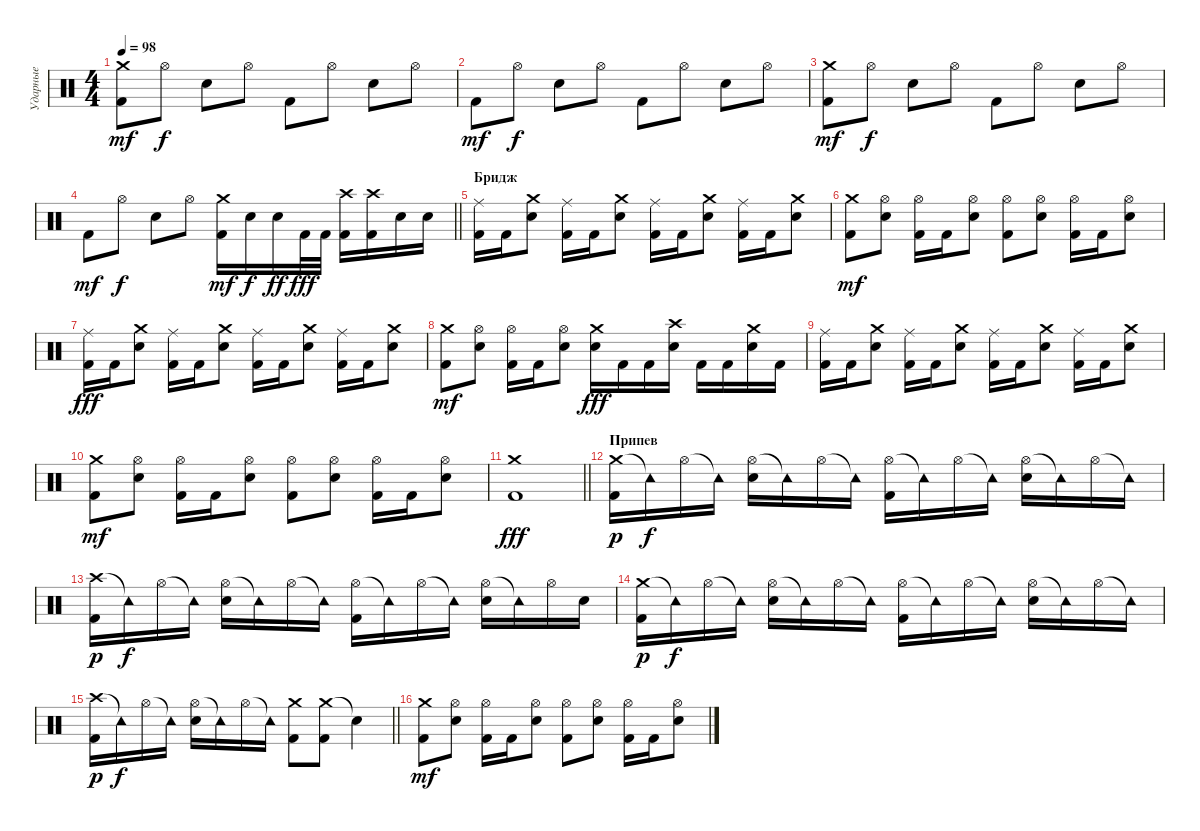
\track ("Ударные" "Ударные") {instrument percussion}
\staff {score}
\articulation defaults
\ts (4 4)
\tempo 98
\clef neutral
\ks c
("Crash medium (hit)" "Kick (hit) 2").8{dy mf} "Hi-Hat (open)".8{dy f} "Snare (hit) 2".8 "Hi-Hat (open)".8 "Kick (hit) 2".8 "Hi-Hat (open)".8 "Snare (hit) 2".8 "Hi-Hat (open)".8 |
"Kick (hit) 2".8{dy mf} "Hi-Hat (open)".8{dy f} "Snare (hit) 2".8 "Hi-Hat (open)".8 "Kick (hit) 2".8 "Hi-Hat (open)".8 "Snare (hit) 2".8 "Hi-Hat (open)".8 |
("Crash medium (hit)" "Kick (hit) 2").8{dy mf} "Hi-Hat (open)".8{dy f} "Snare (hit) 2".8 "Hi-Hat (open)".8 "Kick (hit) 2".8 "Hi-Hat (open)".8 "Snare (hit) 2".8 "Hi-Hat (open)".8 |
\barLineRight lightlight "Kick (hit) 2".8{dy mf} "Hi-Hat (open)".8{dy f} "Snare (hit) 2".8 "Hi-Hat (open)".8
("Crash medium (hit)" "Kick (hit) 2").16{dy mf} "Snare (hit) 2".16{dy f} "Snare (hit) 2".16{dy ff} "Kick (hit) 2".32{dy fff} "Kick (hit) 2".32 ("Crash high (hit)" "Kick (hit) 2").16 ("Crash high (hit)" "Kick (hit) 2").16 "Snare (hit) 2".16 "Snare (hit) 2".16 |
\section ("" "Бридж")
("Ride (middle)" "Kick (hit) 2").16 "Kick (hit) 2".16 ("Crash medium (hit)" "Snare (hit) 2").8 ("Ride (middle)" "Kick (hit) 2").16 "Kick (hit) 2".16 ("Crash medium (hit)" "Snare (hit) 2").8 ("Ride (middle)" "Kick (hit) 2").16 "Kick (hit) 2".16 ("Crash medium (hit)" "Snare (hit) 2").8 ("Ride (middle)" "Kick (hit) 2").16 "Kick (hit) 2".16 ("Crash medium (hit)" "Snare (hit) 2").8 |
("Crash medium (hit)" "Kick (hit) 2").8{dy mf} ("Hi-Hat (open)" "Snare (hit) 2").8 ("Hi-Hat (open)" "Kick (hit) 2").16 "Kick (hit) 2".16 ("Hi-Hat (open)" "Snare (hit) 2").8 ("Hi-Hat (open)" "Kick (hit) 2").8 ("Hi-Hat (open)" "Snare (hit) 2").8 ("Hi-Hat (open)" "Kick (hit) 2").16 "Kick (hit) 2".16 ("Hi-Hat (open)" "Snare (hit) 2").8 |
("Ride (middle)" "Kick (hit) 2").16{dy fff} "Kick (hit) 2".16 ("Crash medium (hit)" "Snare (hit) 2").8 ("Ride (middle)" "Kick (hit) 2").16 "Kick (hit) 2".16 ("Crash medium (hit)" "Snare (hit) 2").8 ("Ride (middle)" "Kick (hit) 2").16 "Kick (hit) 2".16 ("Crash medium (hit)" "Snare (hit) 2").8 ("Ride (middle)" "Kick (hit) 2").16 "Kick (hit) 2".16 ("Crash medium (hit)" "Snare (hit) 2").8 |
("Crash medium (hit)" "Kick (hit) 2").8{dy mf} ("Hi-Hat (open)" "Snare (hit) 2").8 ("Hi-Hat (open)" "Kick (hit) 2").16 "Kick (hit) 2".16 ("Hi-Hat (open)" "Snare (hit) 2").8 ("Crash medium (hit)" "Snare (hit) 2").16{dy fff} "Kick (hit) 2".16 "Kick (hit) 2".16 ("Crash high (hit)" "Snare (hit) 2").16 "Kick (hit) 2".16 "Kick (hit) 2".16 ("Crash medium (hit)" "Snare (hit) 2").16 "Kick (hit) 2".16 |
("Ride (middle)" "Kick (hit) 2").16 "Kick (hit) 2".16 ("Crash medium (hit)" "Snare (hit) 2").8 ("Ride (middle)" "Kick (hit) 2").16 "Kick (hit) 2".16 ("Crash medium (hit)" "Snare (hit) 2").8 ("Ride (middle)" "Kick (hit) 2").16 "Kick (hit) 2".16 ("Crash medium (hit)" "Snare (hit) 2").8 ("Ride (middle)" "Kick (hit) 2").16 "Kick (hit) 2".16 ("Crash medium (hit)" "Snare (hit) 2").8 |
("Crash medium (hit)" "Kick (hit) 2").8{dy mf} ("Hi-Hat (open)" "Snare (hit) 2").8 ("Hi-Hat (open)" "Kick (hit) 2").16 "Kick (hit) 2".16 ("Hi-Hat (open)" "Snare (hit) 2").8 ("Hi-Hat (open)" "Kick (hit) 2").8 ("Hi-Hat (open)" "Snare (hit) 2").8 ("Hi-Hat (open)" "Kick (hit) 2").16 "Kick (hit) 2".16 ("Hi-Hat (open)" "Snare (hit) 2").8 |
\barLineRight lightlight
("Crash medium (hit)" "Kick (hit) 2").1{dy fff} |
\section ("" "Припев")
("Crash medium (hit)" "Kick (hit) 2").16{dy p} "Tambourine (hit)"{t}.16{dy f} "Hi-Hat (open)".16 "Tambourine (hit)"{t}.16 ("Hi-Hat (open)" "Snare (hit) 2").16 "Tambourine (hit)"{t}.16 "Hi-Hat (open)".16 "Tambourine (hit)"{t}.16 ("Hi-Hat (open)" "Kick (hit) 2").16 "Tambourine (hit)"{t}.16 "Hi-Hat (open)".16 "Tambourine (hit)"{t}.16 ("Hi-Hat (open)" "Snare (hit) 2").16 "Tambourine (hit)"{t}.16 "Hi-Hat (open)".16 "Tambourine (hit)"{t}.16 |
("Crash high (hit)" "Kick (hit) 2").16{dy p} "Tambourine (hit)"{t}.16{dy f} "Hi-Hat (open)".16 "Tambourine (hit)"{t}.16 ("Hi-Hat (open)" "Snare (hit) 2").16 "Tambourine (hit)"{t}.16 "Hi-Hat (open)".16 "Tambourine (hit)"{t}.16 ("Hi-Hat (open)" "Kick (hit) 2").16 "Tambourine (hit)"{t}.16 "Hi-Hat (open)".16 "Tambourine (hit)"{t}.16 ("Hi-Hat (open)" "Snare (hit) 2").16 "Tambourine (hit)"{t}.16 "Hi-Hat (open)".16 "Snare (hit) 2".16 |
("Crash medium (hit)" "Kick (hit) 2").16{dy p} "Tambourine (hit)"{t}.16{dy f} "Hi-Hat (open)".16 "Tambourine (hit)"{t}.16 ("Hi-Hat (open)" "Snare (hit) 2").16 "Tambourine (hit)"{t}.16 "Hi-Hat (open)".16 "Tambourine (hit)"{t}.16 ("Hi-Hat (open)" "Kick (hit) 2").16 "Tambourine (hit)"{t}.16 "Hi-Hat (open)".16 "Tambourine (hit)"{t}.16 ("Hi-Hat (open)" "Snare (hit) 2").16 "Tambourine (hit)"{t}.16 "Hi-Hat (open)".16 "Tambourine (hit)"{t}.16 |
\barLineRight lightlight
("Crash high (hit)" "Kick (hit) 2").16{dy p} "Tambourine (hit)"{t}.16{dy f} "Hi-Hat (open)".16 "Tambourine (hit)"{t}.16 ("Hi-Hat (open)" "Snare (hit) 2").16 "Tambourine (hit)"{t}.16 "Hi-Hat (open)".16 "Tambourine (hit)"{t}.16 ("Crash medium (hit)" "Kick (hit) 2").8 ("Crash medium (hit)" "Kick (hit) 2").8 "Snare (hit)"{t}.4 |
("Crash medium (hit)" "Kick (hit) 2").8{dy mf} ("Hi-Hat (open)" "Snare (hit) 2").8 ("Hi-Hat (open)" "Kick (hit) 2").16 "Kick (hit) 2".16 ("Hi-Hat (open)" "Snare (hit) 2").8 ("Hi-Hat (open)" "Kick (hit) 2").8 ("Hi-Hat (open)" "Snare (hit) 2").8 ("Hi-Hat (open)" "Kick (hit) 2").16 "Kick (hit) 2".16 ("Hi-Hat (open)" "Snare (hit) 2").8
